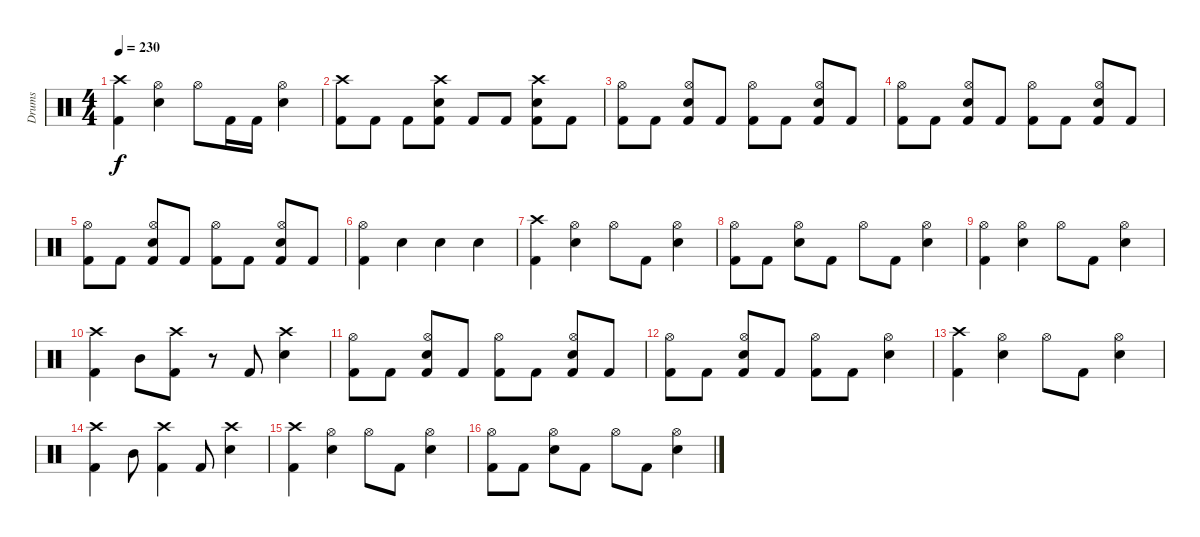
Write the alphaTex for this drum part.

\track ("Drums" "Drums") {instrument percussion}
\staff {score}
\articulation defaults
\ts (4 4)
\tempo 230
\clef neutral
\ks c
("Crash high (hit)" "Kick (hit) 2").4{dy f} ("Hi-Hat (open)" "Electric Snare (hit)").4 "Hi-Hat (open)".8 "Kick (hit) 2".16 "Kick (hit) 2".16 ("Hi-Hat (open)" "Electric Snare (hit)").4 |
("Crash high (hit)" "Kick (hit) 2").8 "Kick (hit) 2".8 "Kick (hit) 2".8 ("Crash high (hit)" "Electric Snare (hit)" "Kick (hit) 2").8 "Kick (hit) 2".8 "Kick (hit) 2".8 ("Crash high (hit)" "Electric Snare (hit)" "Kick (hit) 2").8 "Kick (hit) 2".8 |
("Hi-Hat (open)" "Kick (hit) 2").8 "Kick (hit) 2".8 ("Hi-Hat (open)" "Electric Snare (hit)" "Kick (hit) 2").8 "Kick (hit) 2".8 ("Hi-Hat (open)" "Kick (hit) 2").8 "Kick (hit) 2".8 ("Hi-Hat (open)" "Electric Snare (hit)" "Kick (hit) 2").8 "Kick (hit) 2".8 |
("Hi-Hat (open)" "Kick (hit) 2").8 "Kick (hit) 2".8 ("Hi-Hat (open)" "Electric Snare (hit)" "Kick (hit) 2").8 "Kick (hit) 2".8 ("Hi-Hat (open)" "Kick (hit) 2").8 "Kick (hit) 2".8 ("Hi-Hat (open)" "Electric Snare (hit)" "Kick (hit) 2").8 "Kick (hit) 2".8 |
("Hi-Hat (open)" "Kick (hit) 2").8 "Kick (hit) 2".8 ("Hi-Hat (open)" "Electric Snare (hit)" "Kick (hit) 2").8 "Kick (hit) 2".8 ("Hi-Hat (open)" "Kick (hit) 2").8 "Kick (hit) 2".8 ("Hi-Hat (open)" "Electric Snare (hit)" "Kick (hit) 2").8 "Kick (hit) 2".8 |
("Hi-Hat (open)" "Kick (hit) 2").4 "Electric Snare (hit)".4 "Electric Snare (hit)".4 "Electric Snare (hit)".4 |
("Crash high (hit)" "Kick (hit) 2").4 ("Hi-Hat (open)" "Electric Snare (hit)").4 "Hi-Hat (open)".8 "Kick (hit) 2".8 ("Hi-Hat (open)" "Electric Snare (hit)").4 |
("Hi-Hat (open)" "Kick (hit) 2").8 "Kick (hit) 2".8 ("Hi-Hat (open)" "Electric Snare (hit)").8 "Kick (hit) 2".8 "Hi-Hat (open)".8 "Kick (hit) 2".8 ("Hi-Hat (open)" "Electric Snare (hit)").4 |
("Hi-Hat (open)" "Kick (hit) 2").4 ("Hi-Hat (open)" "Electric Snare (hit)").4 "Hi-Hat (open)".8 "Kick (hit) 2".8 ("Hi-Hat (open)" "Electric Snare (hit)").4 |
("Crash high (hit)" "Kick (hit) 2").4 "Mid Tom (hit)".8 ("Crash high (hit)" "Kick (hit) 2").8 r.8 "Kick (hit) 2".8 ("Crash high (hit)" "Electric Snare (hit)").4 |
("Hi-Hat (open)" "Kick (hit) 2").8 "Kick (hit) 2".8 ("Hi-Hat (open)" "Electric Snare (hit)" "Kick (hit) 2").8 "Kick (hit) 2".8 ("Hi-Hat (open)" "Kick (hit) 2").8 "Kick (hit) 2".8 ("Hi-Hat (open)" "Electric Snare (hit)" "Kick (hit) 2").8 "Kick (hit) 2".8 |
("Hi-Hat (open)" "Kick (hit) 2").8 "Kick (hit) 2".8 ("Hi-Hat (open)" "Electric Snare (hit)" "Kick (hit) 2").8 "Kick (hit) 2".8 ("Hi-Hat (open)" "Kick (hit) 2").8 "Kick (hit) 2".8 ("Hi-Hat (open)" "Electric Snare (hit)").4 |
("Crash high (hit)" "Kick (hit) 2").4 ("Hi-Hat (open)" "Electric Snare (hit)").4 "Hi-Hat (open)".8 "Kick (hit) 2".8 ("Hi-Hat (open)" "Electric Snare (hit)").4 |
("Crash high (hit)" "Kick (hit) 2").4 "Mid Tom (hit)".8 ("Crash high (hit)" "Kick (hit) 2").4 "Kick (hit) 2".8 ("Crash high (hit)" "Electric Snare (hit)").4 |
("Crash high (hit)" "Kick (hit) 2").4 ("Hi-Hat (open)" "Electric Snare (hit)").4 "Hi-Hat (open)".8 "Kick (hit) 2".8 ("Hi-Hat (open)" "Electric Snare (hit)").4 |
("Hi-Hat (open)" "Kick (hit) 2").8 "Kick (hit) 2".8 ("Hi-Hat (open)" "Electric Snare (hit)").8 "Kick (hit) 2".8 "Hi-Hat (open)".8 "Kick (hit) 2".8 ("Hi-Hat (open)" "Electric Snare (hit)").4
